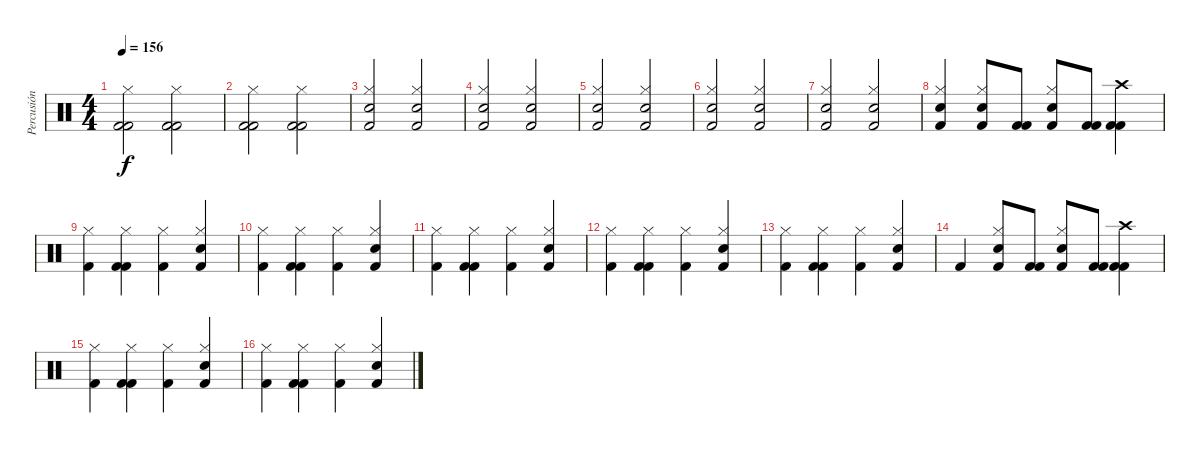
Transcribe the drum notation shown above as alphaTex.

\track ("Percusión" "Percusión") {instrument percussion}
\staff {score}
\articulation defaults
\ts (4 4)
\tempo 156
\clef neutral
\ks c
("Kick (hit) 2" "Kick (hit) 2" "Hi-Hat (closed)").2{dy f} ("Kick (hit) 2" "Kick (hit) 2" "Hi-Hat (closed)").2 |
("Kick (hit) 2" "Kick (hit) 2" "Hi-Hat (closed)").2 ("Kick (hit) 2" "Kick (hit) 2" "Hi-Hat (closed)").2 |
("Kick (hit) 2" "Snare (hit) 2" "Hi-Hat (closed)").2 ("Kick (hit) 2" "Snare (hit) 2" "Hi-Hat (closed)").2 |
("Kick (hit) 2" "Snare (hit) 2" "Hi-Hat (closed)").2 ("Kick (hit) 2" "Snare (hit) 2" "Hi-Hat (closed)").2 |
("Kick (hit) 2" "Snare (hit) 2" "Hi-Hat (closed)").2 ("Kick (hit) 2" "Snare (hit) 2" "Hi-Hat (closed)").2 |
("Kick (hit) 2" "Snare (hit) 2" "Hi-Hat (closed)").2 ("Kick (hit) 2" "Snare (hit) 2" "Hi-Hat (closed)").2 |
("Kick (hit) 2" "Snare (hit) 2" "Hi-Hat (closed)").2 ("Kick (hit) 2" "Snare (hit) 2" "Hi-Hat (closed)").2 |
("Kick (hit) 2" "Snare (hit) 2" "Hi-Hat (closed)").4 ("Kick (hit) 2" "Hi-Hat (closed)" "Snare (hit) 2").8 ("Kick (hit) 2" "Kick (hit) 2").8 ("Kick (hit) 2" "Hi-Hat (closed)" "Snare (hit) 2").8 ("Kick (hit) 2" "Kick (hit) 2").8 ("Kick (hit) 2" "Kick (hit) 2" "Crash high (hit)").4 |
("Kick (hit) 2" "Hi-Hat (closed)").4 ("Kick (hit) 2" "Kick (hit) 2" "Hi-Hat (closed)").4 ("Kick (hit) 2" "Hi-Hat (closed)").4 ("Kick (hit) 2" "Snare (hit) 2" "Hi-Hat (closed)").4 |
("Kick (hit) 2" "Hi-Hat (closed)").4 ("Kick (hit) 2" "Kick (hit) 2" "Hi-Hat (closed)").4 ("Kick (hit) 2" "Hi-Hat (closed)").4 ("Kick (hit) 2" "Snare (hit) 2" "Hi-Hat (closed)").4 |
("Kick (hit) 2" "Hi-Hat (closed)").4 ("Kick (hit) 2" "Kick (hit) 2" "Hi-Hat (closed)").4 ("Kick (hit) 2" "Hi-Hat (closed)").4 ("Kick (hit) 2" "Snare (hit) 2" "Hi-Hat (closed)").4 |
("Kick (hit) 2" "Hi-Hat (closed)").4 ("Kick (hit) 2" "Kick (hit) 2" "Hi-Hat (closed)").4 ("Kick (hit) 2" "Hi-Hat (closed)").4 ("Kick (hit) 2" "Snare (hit) 2" "Hi-Hat (closed)").4 |
("Kick (hit) 2" "Hi-Hat (closed)").4 ("Kick (hit) 2" "Kick (hit) 2" "Hi-Hat (closed)").4 ("Kick (hit) 2" "Hi-Hat (closed)").4 ("Kick (hit) 2" "Snare (hit) 2" "Hi-Hat (closed)").4 |
"Kick (hit) 2".4 ("Kick (hit) 2" "Hi-Hat (closed)" "Snare (hit) 2").8 ("Kick (hit) 2" "Kick (hit) 2").8 ("Kick (hit) 2" "Hi-Hat (closed)" "Snare (hit) 2").8 ("Kick (hit) 2" "Kick (hit) 2").8 ("Kick (hit) 2" "Kick (hit) 2" "Crash high (hit)").4 |
("Kick (hit) 2" "Hi-Hat (closed)").4 ("Kick (hit) 2" "Kick (hit) 2" "Hi-Hat (closed)").4 ("Kick (hit) 2" "Hi-Hat (closed)").4 ("Kick (hit) 2" "Snare (hit) 2" "Hi-Hat (closed)").4 |
("Kick (hit) 2" "Hi-Hat (closed)").4 ("Kick (hit) 2" "Kick (hit) 2" "Hi-Hat (closed)").4 ("Kick (hit) 2" "Hi-Hat (closed)").4 ("Kick (hit) 2" "Snare (hit) 2" "Hi-Hat (closed)").4
